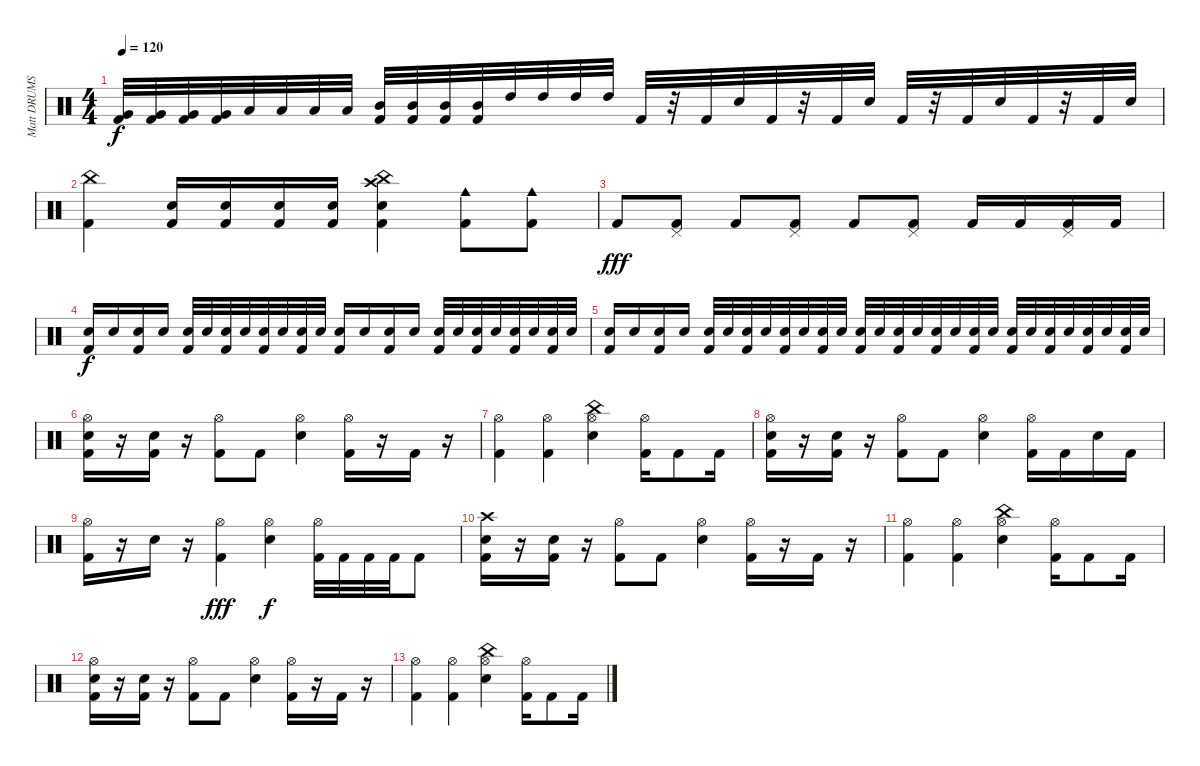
\track ("Matt DRUMS" "Matt DRUMS") {instrument percussion}
\staff {score}
\articulation defaults
\ts (4 4)
\tempo 120
\clef neutral
\ks c
("Very Low Tom (hit)" "Kick (hit) 2").32{dy f} ("Very Low Tom (hit)" "Kick (hit) 2").32 ("Very Low Tom (hit)" "Kick (hit) 2").32 ("Very Low Tom (hit)" "Kick (hit) 2").32 "Low Tom (hit)".32 "Low Tom (hit)".32 "Low Tom (hit)".32 "Low Tom (hit)".32 ("Mid Tom (hit)" "Kick (hit) 2").32 ("Mid Tom (hit)" "Kick (hit) 2").32 ("Mid Tom (hit)" "Kick (hit) 2").32 ("Mid Tom (hit)" "Kick (hit) 2").32 "High Tom (hit)".32 "High Tom (hit)".32 "High Tom (hit)".32 "High Tom (hit)".32 "Kick (hit) 2".32 r.32 "Kick (hit) 2".32 "Snare (hit) 2".32 "Kick (hit) 2".32 r.32 "Kick (hit) 2".32 "Snare (hit) 2".32 "Kick (hit) 2".32 r.32 "Kick (hit) 2".32 "Snare (hit) 2".32 "Kick (hit) 2".32 r.32 "Kick (hit) 2".32 "Snare (hit) 2".32 |
("China (hit)" "Kick (hit) 2").4 ("Snare (hit) 2" "Kick (hit) 2").16 ("Snare (hit) 2" "Kick (hit) 2").16 ("Snare (hit) 2" "Kick (hit) 2").16 ("Snare (hit) 2" "Kick (hit) 2").16 ("Crash high (hit)" "China (hit)" "Snare (hit) 2" "Kick (hit) 2").4 ("Cowbell medium (hit)" "Kick (hit) 2").8 ("Cowbell medium (hit)" "Kick (hit) 2").8 |
"Kick (hit) 2".8{dy fff} ("Pedal Hi-Hat (hit)" "Kick (hit) 2").8 "Kick (hit) 2".8 ("Pedal Hi-Hat (hit)" "Kick (hit) 2").8 "Kick (hit) 2".8 ("Pedal Hi-Hat (hit)" "Kick (hit) 2").8 "Kick (hit) 2".16 "Kick (hit) 2".16 ("Pedal Hi-Hat (hit)" "Kick (hit) 2").16 "Kick (hit) 2".16 |
("Electric Snare (hit)" "Kick (hit) 2").16{dy f} "Electric Snare (hit)".16 ("Electric Snare (hit)" "Kick (hit) 2").16 "Electric Snare (hit)".16 ("Electric Snare (hit)" "Kick (hit) 2").32 "Electric Snare (hit)".32 ("Electric Snare (hit)" "Kick (hit) 2").32 "Electric Snare (hit)".32 ("Electric Snare (hit)" "Kick (hit) 2").32 "Electric Snare (hit)".32 ("Electric Snare (hit)" "Kick (hit) 2").32 "Electric Snare (hit)".32 ("Electric Snare (hit)" "Kick (hit) 2").16 "Electric Snare (hit)".16 ("Electric Snare (hit)" "Kick (hit) 2").16 "Electric Snare (hit)".16 ("Electric Snare (hit)" "Kick (hit) 2").32 "Electric Snare (hit)".32 ("Electric Snare (hit)" "Kick (hit) 2").32 "Electric Snare (hit)".32 ("Electric Snare (hit)" "Kick (hit) 2").32 "Electric Snare (hit)".32 ("Electric Snare (hit)" "Kick (hit) 2").32 "Electric Snare (hit)".32 |
("Electric Snare (hit)" "Kick (hit) 2").16 "Electric Snare (hit)".16 ("Electric Snare (hit)" "Kick (hit) 2").16 "Electric Snare (hit)".16 ("Electric Snare (hit)" "Kick (hit) 2").32 "Electric Snare (hit)".32 ("Electric Snare (hit)" "Kick (hit) 2").32 "Electric Snare (hit)".32 ("Electric Snare (hit)" "Kick (hit) 2").32 "Electric Snare (hit)".32 ("Electric Snare (hit)" "Kick (hit) 2").32 "Electric Snare (hit)".32 ("Electric Snare (hit)" "Kick (hit) 2").32 "Electric Snare (hit)".32 ("Electric Snare (hit)" "Kick (hit) 2").32 "Electric Snare (hit)".32 ("Electric Snare (hit)" "Kick (hit) 2").32 "Electric Snare (hit)".32 ("Electric Snare (hit)" "Kick (hit) 2").32 "Electric Snare (hit)".32 ("Electric Snare (hit)" "Kick (hit) 2").32 "Electric Snare (hit)".32 ("Electric Snare (hit)" "Kick (hit) 2").32 "Electric Snare (hit)".32 ("Electric Snare (hit)" "Kick (hit) 2").32 "Electric Snare (hit)".32 ("Electric Snare (hit)" "Kick (hit) 2").32 "Electric Snare (hit)".32 |
("Hi-Hat (open)" "Snare (hit) 2" "Kick (hit) 2").16 r.16 ("Snare (hit) 2" "Kick (hit) 2").16 r.16 ("Hi-Hat (open)" "Kick (hit) 2").8 "Kick (hit) 2".8 ("Hi-Hat (open)" "Snare (hit) 2").4 ("Hi-Hat (open)" "Kick (hit) 2").16 r.16 "Kick (hit) 2".16 r.16 |
("Hi-Hat (open)" "Kick (hit) 2").4 ("Hi-Hat (open)" "Kick (hit) 2").4 ("China (hit)" "Hi-Hat (open)" "Snare (hit) 2").4 ("Hi-Hat (open)" "Kick (hit) 2").16 "Kick (hit) 2".8 "Kick (hit) 2".16 |
("Hi-Hat (open)" "Snare (hit) 2" "Kick (hit) 2").16 r.16 ("Snare (hit) 2" "Kick (hit) 2").16 r.16 ("Hi-Hat (open)" "Kick (hit) 2").8 "Kick (hit) 2".8 ("Hi-Hat (open)" "Snare (hit) 2").4 ("Hi-Hat (open)" "Kick (hit) 2").16 "Kick (hit) 2".16 "Snare (hit) 2".16 "Kick (hit) 2".16 |
("Hi-Hat (open)" "Kick (hit) 2").16 r.16 "Snare (hit) 2".16 r.16 ("Hi-Hat (open)" "Kick (hit) 2").4{dy fff} ("Hi-Hat (open)" "Snare (hit) 2").4{dy f} ("Hi-Hat (open)" "Kick (hit) 2").32 "Kick (hit) 2".32 "Kick (hit) 2".32 "Kick (hit) 2".32 "Kick (hit) 2".8 |
("Crash high (hit)" "Snare (hit) 2" "Kick (hit) 2").16 r.16 ("Snare (hit) 2" "Kick (hit) 2").16 r.16 ("Hi-Hat (open)" "Kick (hit) 2").8 "Kick (hit) 2".8 ("Hi-Hat (open)" "Snare (hit) 2").4 ("Hi-Hat (open)" "Kick (hit) 2").16 r.16 "Kick (hit) 2".16 r.16 |
("Hi-Hat (open)" "Kick (hit) 2").4 ("Hi-Hat (open)" "Kick (hit) 2").4 ("China (hit)" "Hi-Hat (open)" "Snare (hit) 2").4 ("Hi-Hat (open)" "Kick (hit) 2").16 "Kick (hit) 2".8 "Kick (hit) 2".16 |
("Hi-Hat (open)" "Snare (hit) 2" "Kick (hit) 2").16 r.16 ("Snare (hit) 2" "Kick (hit) 2").16 r.16 ("Hi-Hat (open)" "Kick (hit) 2").8 "Kick (hit) 2".8 ("Hi-Hat (open)" "Snare (hit) 2").4 ("Hi-Hat (open)" "Kick (hit) 2").16 r.16 "Kick (hit) 2".16 r.16 |
("Hi-Hat (open)" "Kick (hit) 2").4 ("Hi-Hat (open)" "Kick (hit) 2").4 ("China (hit)" "Hi-Hat (open)" "Snare (hit) 2").4 ("Hi-Hat (open)" "Kick (hit) 2").16 "Kick (hit) 2".8 "Kick (hit) 2".16
